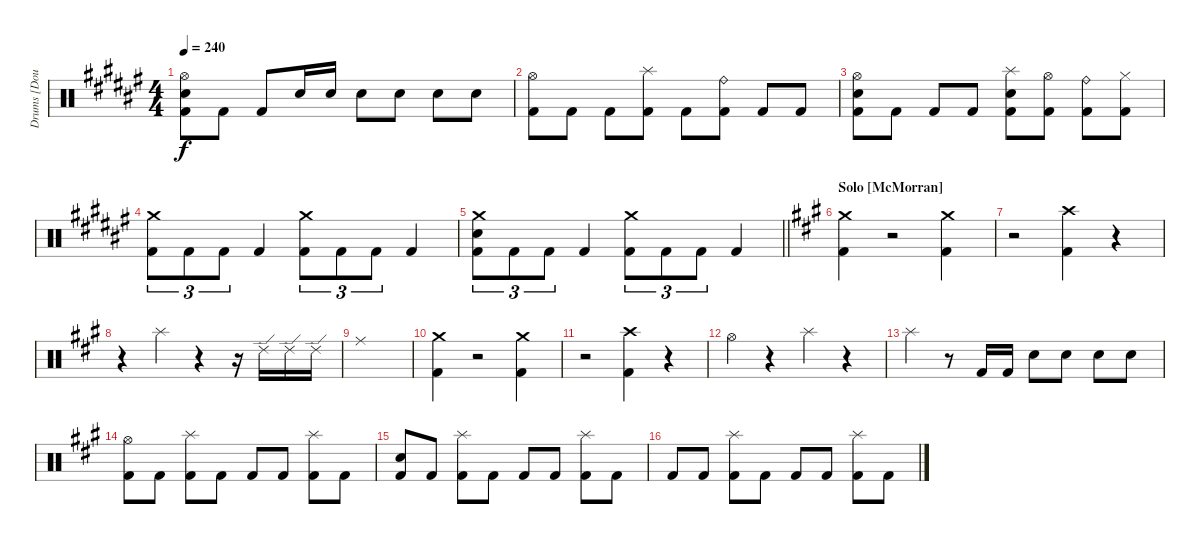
\track ("Drums [Doug Anderson]" "Drums [Dou") {instrument percussion}
\staff {score}
\articulation defaults
\ts (4 4)
\tempo 240
\clef neutral
\ks f#
("Hi-Hat (open)" "Electric Snare (hit)" "Kick (hit) 2").8{dy f} "Kick (hit) 2".8 "Kick (hit) 2".8 "Electric Snare (hit)".16 "Electric Snare (hit)".16 "Electric Snare (hit)".8 "Electric Snare (hit)".8 "Electric Snare (hit)".8 "Electric Snare (hit)".8 |
("Hi-Hat (open)" "Kick (hit) 2").8 "Kick (hit) 2".8 "Kick (hit) 2".8 ("Splash (hit)" "Kick (hit) 2").8 "Kick (hit) 2".8 ("Ride (bell)" "Kick (hit) 2").8 "Kick (hit) 2".8 "Kick (hit) 2".8 |
("Hi-Hat (open)" "Electric Snare (hit)" "Kick (hit) 2").8 "Kick (hit) 2".8 "Kick (hit) 2".8 "Kick (hit) 2".8 ("Splash (hit)" "Electric Snare (hit)" "Kick (hit) 2").8 ("Hi-Hat (open)" "Kick (hit) 2").8 ("Ride (bell)" "Kick (hit) 2").8 ("Hi-Hat (closed)" "Kick (hit) 2").8 |
("Crash medium (hit)" "Kick (hit) 2").8{tu (3 2)} "Kick (hit) 2".8{tu (3 2)} "Kick (hit) 2".8{tu (3 2)} "Kick (hit) 2".4 ("Crash medium (hit)" "Kick (hit) 2").8{tu (3 2)} "Kick (hit) 2".8{tu (3 2)} "Kick (hit) 2".8{tu (3 2)} "Kick (hit) 2".4 |
\barLineRight lightlight
("Crash medium (hit)" "Electric Snare (hit)" "Kick (hit) 2").8{tu (3 2)} "Kick (hit) 2".8{tu (3 2)} "Kick (hit) 2".8{tu (3 2)} "Kick (hit) 2".4 ("Crash medium (hit)" "Kick (hit) 2").8{tu (3 2)} "Kick (hit) 2".8{tu (3 2)} "Kick (hit) 2".8{tu (3 2)} "Kick (hit) 2".4 |
\section ("" "Solo [McMorran]")
\ks f#minor
("Crash medium (hit)" "Kick (hit) 2").4 r.2 ("Crash medium (hit)" "Kick (hit) 2").4 |
r.2 ("Crash high (hit)" "Kick (hit) 2").4 r.4 |
r.4 "Splash (hit)".4 r.4 r.16 "Ride (edge) 2".16 "Ride (edge) 2".16 "Ride (edge) 2".16 |
"Ride (middle)".1 |
("Crash medium (hit)" "Kick (hit) 2").4 r.2 ("Crash medium (hit)" "Kick (hit) 2").4 |
r.2 ("Crash high (hit)" "Kick (hit) 2").4 r.4 |
"Hi-Hat (open)".4 r.4 "Splash (hit)".4 r.4 |
"Splash (hit)".4 r.8 "Kick (hit) 2".16 "Kick (hit) 2".16 "Electric Snare (hit)".8 "Electric Snare (hit)".8 "Electric Snare (hit)".8 "Electric Snare (hit)".8 |
("Hi-Hat (open)" "Kick (hit) 2").8 "Kick (hit) 2".8 ("Splash (hit)" "Kick (hit) 2").8 "Kick (hit) 2".8 "Kick (hit) 2".8 "Kick (hit) 2".8 ("Splash (hit)" "Kick (hit) 2").8 "Kick (hit) 2".8 |
("Electric Snare (hit)" "Kick (hit) 2").8 "Kick (hit) 2".8 ("Splash (hit)" "Kick (hit) 2").8 "Kick (hit) 2".8 "Kick (hit) 2".8 "Kick (hit) 2".8 ("Splash (hit)" "Kick (hit) 2").8 "Kick (hit) 2".8 |
"Kick (hit) 2".8 "Kick (hit) 2".8 ("Splash (hit)" "Kick (hit) 2").8 "Kick (hit) 2".8 "Kick (hit) 2".8 "Kick (hit) 2".8 ("Splash (hit)" "Kick (hit) 2").8 "Kick (hit) 2".8
